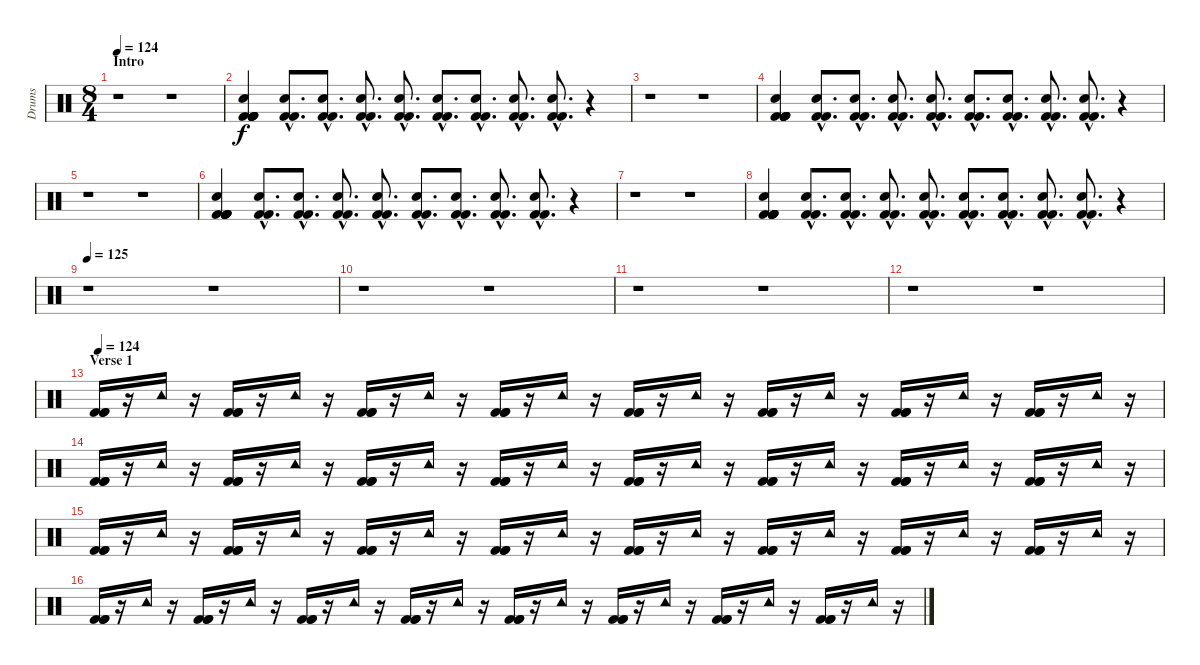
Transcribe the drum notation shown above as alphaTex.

\track ("Drums" "Drums") {instrument percussion}
\staff {score}
\articulation defaults
\ts (8 4)
\section ("" "Intro")
\tempo 124
\clef neutral
\ks c
r.1{dy f} r.1 |
("Electric Snare (hit)" "Kick (hit) 2" "Kick (hit) 2" "Kick (hit) 2" "Kick (hit) 2" "Kick (hit) 2").4{volume 16} ("Electric Snare (hit)"{hac} "Kick (hit) 2"{hac} "Kick (hit) 2"{hac}).8{d volume 13 balance 1} ("Electric Snare (hit)"{hac} "Kick (hit) 2"{hac} "Kick (hit) 2"{hac}).8{d volume 11 balance 15} ("Electric Snare (hit)"{hac} "Kick (hit) 2"{hac} "Kick (hit) 2"{hac}).8{d volume 9 balance 1} ("Electric Snare (hit)"{hac} "Kick (hit) 2"{hac} "Kick (hit) 2"{hac}).8{d volume 7 balance 15} ("Electric Snare (hit)"{hac} "Kick (hit) 2"{hac} "Kick (hit) 2"{hac}).8{d volume 5 balance 1} ("Electric Snare (hit)"{hac} "Kick (hit) 2"{hac} "Kick (hit) 2"{hac}).8{d volume 3 balance 15} ("Electric Snare (hit)"{hac} "Kick (hit) 2"{hac} "Kick (hit) 2"{hac}).8{d volume 1 balance 1} ("Electric Snare (hit)"{hac} "Kick (hit) 2"{hac} "Kick (hit) 2"{hac}).8{d volume 0 balance 15} r.4 |
r.1 r.1 |
("Electric Snare (hit)" "Kick (hit) 2" "Kick (hit) 2" "Kick (hit) 2" "Kick (hit) 2" "Kick (hit) 2").4{volume 16} ("Electric Snare (hit)"{hac} "Kick (hit) 2"{hac} "Kick (hit) 2"{hac}).8{d volume 13 balance 1} ("Electric Snare (hit)"{hac} "Kick (hit) 2"{hac} "Kick (hit) 2"{hac}).8{d volume 11 balance 15} ("Electric Snare (hit)"{hac} "Kick (hit) 2"{hac} "Kick (hit) 2"{hac}).8{d volume 9 balance 1} ("Electric Snare (hit)"{hac} "Kick (hit) 2"{hac} "Kick (hit) 2"{hac}).8{d volume 7 balance 15} ("Electric Snare (hit)"{hac} "Kick (hit) 2"{hac} "Kick (hit) 2"{hac}).8{d volume 5 balance 1} ("Electric Snare (hit)"{hac} "Kick (hit) 2"{hac} "Kick (hit) 2"{hac}).8{d volume 3 balance 15} ("Electric Snare (hit)"{hac} "Kick (hit) 2"{hac} "Kick (hit) 2"{hac}).8{d volume 1 balance 1} ("Electric Snare (hit)"{hac} "Kick (hit) 2"{hac} "Kick (hit) 2"{hac}).8{d volume 0 balance 15} r.4 |
r.1 r.1 |
("Electric Snare (hit)" "Kick (hit) 2" "Kick (hit) 2" "Kick (hit) 2" "Kick (hit) 2" "Kick (hit) 2").4{volume 16} ("Electric Snare (hit)"{hac} "Kick (hit) 2"{hac} "Kick (hit) 2"{hac}).8{d volume 13 balance 1} ("Electric Snare (hit)"{hac} "Kick (hit) 2"{hac} "Kick (hit) 2"{hac}).8{d volume 11 balance 15} ("Electric Snare (hit)"{hac} "Kick (hit) 2"{hac} "Kick (hit) 2"{hac}).8{d volume 9 balance 1} ("Electric Snare (hit)"{hac} "Kick (hit) 2"{hac} "Kick (hit) 2"{hac}).8{d volume 7 balance 15} ("Electric Snare (hit)"{hac} "Kick (hit) 2"{hac} "Kick (hit) 2"{hac}).8{d volume 5 balance 1} ("Electric Snare (hit)"{hac} "Kick (hit) 2"{hac} "Kick (hit) 2"{hac}).8{d volume 3 balance 15} ("Electric Snare (hit)"{hac} "Kick (hit) 2"{hac} "Kick (hit) 2"{hac}).8{d volume 1 balance 1} ("Electric Snare (hit)"{hac} "Kick (hit) 2"{hac} "Kick (hit) 2"{hac}).8{d volume 0 balance 15} r.4 |
r.1 r.1 |
("Electric Snare (hit)" "Kick (hit) 2" "Kick (hit) 2" "Kick (hit) 2" "Kick (hit) 2" "Kick (hit) 2").4{volume 16} ("Electric Snare (hit)"{hac} "Kick (hit) 2"{hac} "Kick (hit) 2"{hac}).8{d volume 13 balance 1} ("Electric Snare (hit)"{hac} "Kick (hit) 2"{hac} "Kick (hit) 2"{hac}).8{d volume 11 balance 15} ("Electric Snare (hit)"{hac} "Kick (hit) 2"{hac} "Kick (hit) 2"{hac}).8{d volume 9 balance 1} ("Electric Snare (hit)"{hac} "Kick (hit) 2"{hac} "Kick (hit) 2"{hac}).8{d volume 7 balance 15} ("Electric Snare (hit)"{hac} "Kick (hit) 2"{hac} "Kick (hit) 2"{hac}).8{d volume 5 balance 1} ("Electric Snare (hit)"{hac} "Kick (hit) 2"{hac} "Kick (hit) 2"{hac}).8{d volume 3 balance 15} ("Electric Snare (hit)"{hac} "Kick (hit) 2"{hac} "Kick (hit) 2"{hac}).8{d volume 1 balance 1} ("Electric Snare (hit)"{hac} "Kick (hit) 2"{hac} "Kick (hit) 2"{hac}).8{d volume 0 balance 15} r.4 |
\tempo 125
r.1 r.1 |
r.1 r.1 |
r.1 r.1 |
r.1 r.1 |
\section ("" "Verse 1")
\tempo 124
("Kick (hit) 2" "Kick (hit) 2" "Kick (hit) 2").16{volume 16 balance 8} r.16 "Tambourine (hit)".16 r.16 ("Kick (hit) 2" "Kick (hit) 2" "Kick (hit) 2").16 r.16 "Tambourine (hit)".16 r.16 ("Kick (hit) 2" "Kick (hit) 2" "Kick (hit) 2").16 r.16 "Tambourine (hit)".16 r.16 ("Kick (hit) 2" "Kick (hit) 2" "Kick (hit) 2").16 r.16 "Tambourine (hit)".16 r.16 ("Kick (hit) 2" "Kick (hit) 2" "Kick (hit) 2").16 r.16 "Tambourine (hit)".16 r.16 ("Kick (hit) 2" "Kick (hit) 2" "Kick (hit) 2").16 r.16 "Tambourine (hit)".16 r.16 ("Kick (hit) 2" "Kick (hit) 2" "Kick (hit) 2").16 r.16 "Tambourine (hit)".16 r.16 ("Kick (hit) 2" "Kick (hit) 2" "Kick (hit) 2").16 r.16 "Tambourine (hit)".16 r.16 |
("Kick (hit) 2" "Kick (hit) 2" "Kick (hit) 2").16{volume 16 balance 8} r.16 "Tambourine (hit)".16 r.16 ("Kick (hit) 2" "Kick (hit) 2" "Kick (hit) 2").16 r.16 "Tambourine (hit)".16 r.16 ("Kick (hit) 2" "Kick (hit) 2" "Kick (hit) 2").16 r.16 "Tambourine (hit)".16 r.16 ("Kick (hit) 2" "Kick (hit) 2" "Kick (hit) 2").16 r.16 "Tambourine (hit)".16 r.16 ("Kick (hit) 2" "Kick (hit) 2" "Kick (hit) 2").16 r.16 "Tambourine (hit)".16 r.16 ("Kick (hit) 2" "Kick (hit) 2" "Kick (hit) 2").16 r.16 "Tambourine (hit)".16 r.16 ("Kick (hit) 2" "Kick (hit) 2" "Kick (hit) 2").16 r.16 "Tambourine (hit)".16 r.16 ("Kick (hit) 2" "Kick (hit) 2" "Kick (hit) 2").16 r.16 "Tambourine (hit)".16 r.16 |
("Kick (hit) 2" "Kick (hit) 2" "Kick (hit) 2").16{volume 16 balance 8} r.16 "Tambourine (hit)".16 r.16 ("Kick (hit) 2" "Kick (hit) 2" "Kick (hit) 2").16 r.16 "Tambourine (hit)".16 r.16 ("Kick (hit) 2" "Kick (hit) 2" "Kick (hit) 2").16 r.16 "Tambourine (hit)".16 r.16 ("Kick (hit) 2" "Kick (hit) 2" "Kick (hit) 2").16 r.16 "Tambourine (hit)".16 r.16 ("Kick (hit) 2" "Kick (hit) 2" "Kick (hit) 2").16 r.16 "Tambourine (hit)".16 r.16 ("Kick (hit) 2" "Kick (hit) 2" "Kick (hit) 2").16 r.16 "Tambourine (hit)".16 r.16 ("Kick (hit) 2" "Kick (hit) 2" "Kick (hit) 2").16 r.16 "Tambourine (hit)".16 r.16 ("Kick (hit) 2" "Kick (hit) 2" "Kick (hit) 2").16 r.16 "Tambourine (hit)".16 r.16 |
("Kick (hit) 2" "Kick (hit) 2" "Kick (hit) 2").16{volume 16 balance 8} r.16 "Tambourine (hit)".16 r.16 ("Kick (hit) 2" "Kick (hit) 2" "Kick (hit) 2").16 r.16 "Tambourine (hit)".16 r.16 ("Kick (hit) 2" "Kick (hit) 2" "Kick (hit) 2").16 r.16 "Tambourine (hit)".16 r.16 ("Kick (hit) 2" "Kick (hit) 2" "Kick (hit) 2").16 r.16 "Tambourine (hit)".16 r.16 ("Kick (hit) 2" "Kick (hit) 2" "Kick (hit) 2").16 r.16 "Tambourine (hit)".16 r.16 ("Kick (hit) 2" "Kick (hit) 2" "Kick (hit) 2").16 r.16 "Tambourine (hit)".16 r.16 ("Kick (hit) 2" "Kick (hit) 2" "Kick (hit) 2").16 r.16 "Tambourine (hit)".16 r.16 ("Kick (hit) 2" "Kick (hit) 2" "Kick (hit) 2").16 r.16 "Tambourine (hit)".16 r.16
